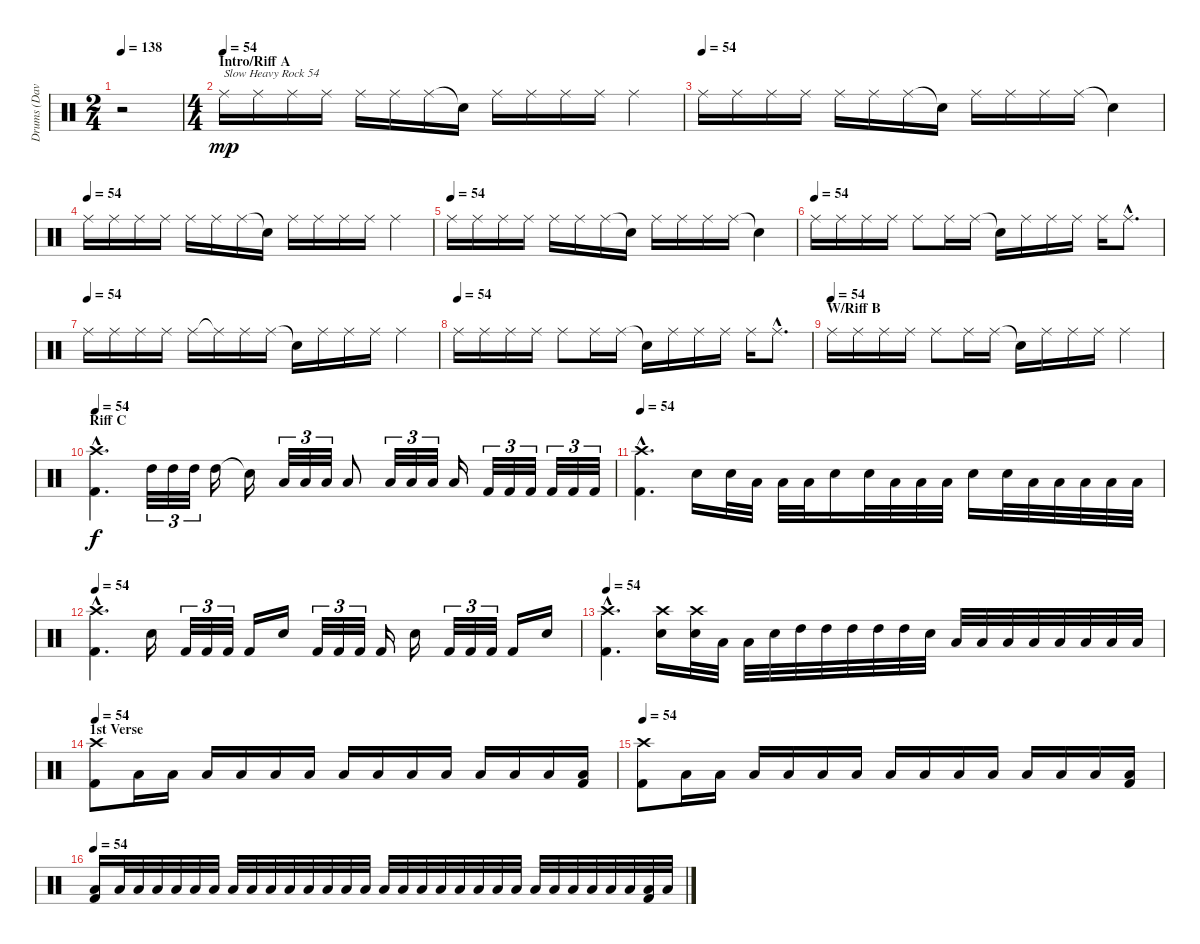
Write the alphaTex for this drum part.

\track ("Drums (Dave)" "Drums (Dav") {instrument percussion}
\staff {score}
\articulation defaults
\ts (2 4)
\tempo 138
\tempo 54
\tempo 138
\clef neutral
\ks c
r.2{dy mp} |
\ts (4 4)
\section ("" "Intro/Riff A")
\tempo (54)
"Ride (middle)".16{txt "Slow Heavy Rock 54" volume 9} "Ride (middle)".16 "Ride (middle)".16 "Ride (middle)".16 "Ride (middle)".16 "Ride (middle)".16 "Ride (middle)".16 "Snare (hit)"{t}.16 "Ride (middle)".16 "Ride (middle)".16 "Ride (middle)".16 "Ride (middle)".16 "Ride (middle)".4 |
\tempo (54)
"Ride (middle)".16{volume 9} "Ride (middle)".16 "Ride (middle)".16 "Ride (middle)".16 "Ride (middle)".16 "Ride (middle)".16 "Ride (middle)".16 "Snare (hit)"{t}.16 "Ride (middle)".16 "Ride (middle)".16 "Ride (middle)".16 "Ride (middle)".16 "Snare (hit)"{t}.4 |
\tempo (54)
"Ride (middle)".16{volume 9} "Ride (middle)".16 "Ride (middle)".16 "Ride (middle)".16 "Ride (middle)".16 "Ride (middle)".16 "Ride (middle)".16 "Snare (hit)"{t}.16 "Ride (middle)".16 "Ride (middle)".16 "Ride (middle)".16 "Ride (middle)".16 "Ride (middle)".4 |
\tempo (54)
"Ride (middle)".16{volume 9} "Ride (middle)".16 "Ride (middle)".16 "Ride (middle)".16 "Ride (middle)".16 "Ride (middle)".16 "Ride (middle)".16 "Snare (hit)"{t}.16 "Ride (middle)".16 "Ride (middle)".16 "Ride (middle)".16 "Ride (middle)".16 "Snare (hit)"{t}.4 |
\tempo (54)
"Ride (middle)".16{volume 9} "Ride (middle)".16 "Ride (middle)".16 "Ride (middle)".16 "Ride (middle)".8 "Ride (middle)".16 "Ride (middle)".16 "Snare (hit)"{t}.16 "Ride (middle)".16 "Ride (middle)".16 "Ride (middle)".16 "Ride (middle)".16 "Ride (middle)"{hac}.8{d} |
\tempo (54)
"Ride (middle)".16{volume 9} "Ride (middle)".16 "Ride (middle)".16 "Ride (middle)".16 "Ride (middle)".16 "Ride (middle)"{t}.16 "Ride (middle)".16 "Ride (middle)".16 "Snare (hit)"{t}.16 "Ride (middle)".16 "Ride (middle)".16 "Ride (middle)".16 "Ride (middle)".4 |
\tempo (54)
"Ride (middle)".16{volume 9} "Ride (middle)".16 "Ride (middle)".16 "Ride (middle)".16 "Ride (middle)".8 "Ride (middle)".16 "Ride (middle)".16 "Snare (hit)"{t}.16 "Ride (middle)".16 "Ride (middle)".16 "Ride (middle)".16 "Ride (middle)".16 "Ride (middle)"{hac}.8{d} |
\section ("" "W/Riff B")
\tempo (54)
"Ride (middle)".16{volume 9} "Ride (middle)".16 "Ride (middle)".16 "Ride (middle)".16 "Ride (middle)".8 "Ride (middle)".16 "Ride (middle)".16 "Snare (hit)"{t}.16 "Ride (middle)".16 "Ride (middle)".16 "Ride (middle)".16 "Ride (middle)".4 |
\section ("" "Riff C")
\tempo 54
("Crash high (hit)"{hac} "Kick (hit) 2"{hac}).4{d dy f volume 16} "High Tom (hit)".32{tu (3 2)} "High Tom (hit)".32{tu (3 2)} "High Tom (hit)".32{tu (3 2)} "High Tom (hit)".16 "Snare (hit)"{t}.16 "Low Tom (hit)".32{tu (3 2)} "Low Tom (hit)".32{tu (3 2)} "Low Tom (hit)".32{tu (3 2)} "Low Tom (hit)".8 "Low Floor Tom (hit)".32{tu (3 2)} "Low Floor Tom (hit)".32{tu (3 2)} "Low Floor Tom (hit)".32{tu (3 2)} "Low Floor Tom (hit)".16 "Kick (hit) 2".32{tu (3 2)} "Kick (hit) 2".32{tu (3 2)} "Kick (hit) 2".32{tu (3 2)} "Kick (hit) 2".32{tu (3 2)} "Kick (hit) 2".32{tu (3 2)} "Kick (hit) 2".32{tu (3 2)} |
\tempo 54
("Kick (hit) 2"{hac} "Crash high (hit)"{hac}).4{d} "Snare (hit) 2".16 "Snare (hit) 2".32 "Low Tom (hit)".32 "Low Tom (hit)".32 "Low Tom (hit)".32 "Snare (hit) 2".16 "Snare (hit) 2".32 "Low Floor Tom (hit)".32 "Low Floor Tom (hit)".32 "Low Floor Tom (hit)".32 "Snare (hit) 2".16 "Snare (hit) 2".32 "Low Floor Tom (hit)".32 "Low Floor Tom (hit)".32 "Low Floor Tom (hit)".32 "Low Tom (hit)".32 "Low Tom (hit)".32 |
\tempo 54
("Crash high (hit)"{hac} "Kick (hit) 2"{hac}).4{d} "Snare (hit) 2".16 "Kick (hit) 2".32{tu (3 2)} "Kick (hit) 2".32{tu (3 2)} "Kick (hit) 2".32{tu (3 2)} "Kick (hit) 2".16 "Snare (hit) 2".16 "Kick (hit) 2".32{tu (3 2)} "Kick (hit) 2".32{tu (3 2)} "Kick (hit) 2".32{tu (3 2)} "Kick (hit) 2".16 "Snare (hit) 2".16 "Kick (hit) 2".32{tu (3 2)} "Kick (hit) 2".32{tu (3 2)} "Kick (hit) 2".32{tu (3 2)} "Kick (hit) 2".16 "Snare (hit) 2".16 |
\tempo 54
("Kick (hit) 2"{hac} "Crash high (hit)"{hac}).4{d} ("Snare (hit) 2" "Crash high (hit)").16 ("Snare (hit) 2" "Crash high (hit)").32 "Low Tom (hit)".32 "Low Tom (hit)".32 "Snare (hit) 2".32 "High Tom (hit)".32 "High Tom (hit)".32 "High Tom (hit)".32 "High Tom (hit)".32 "High Tom (hit)".32 "Snare (hit) 2".32 "Low Tom (hit)".32 "Low Tom (hit)".32 "Low Tom (hit)".32 "Low Tom (hit)".32 "Low Tom (hit)".32 "Low Floor Tom (hit)".32 "Low Floor Tom (hit)".32 "Low Floor Tom (hit)".32 |
\section ("" "1st Verse")
\tempo 54
("Kick (hit) 2" "Crash high (hit)").8 "Low Floor Tom (hit)".16 "Low Floor Tom (hit)".16 "Low Floor Tom (hit)".16 "Low Floor Tom (hit)".16 "Low Floor Tom (hit)".16 "Low Floor Tom (hit)".16 "Low Floor Tom (hit)".16 "Low Floor Tom (hit)".16 "Low Floor Tom (hit)".16 "Low Floor Tom (hit)".16 "Low Floor Tom (hit)".16 "Low Floor Tom (hit)".16 "Low Floor Tom (hit)".16 ("Low Floor Tom (hit)" "Kick (hit) 2").16 |
\tempo 54
("Kick (hit) 2" "Crash high (hit)").8 "Low Floor Tom (hit)".16 "Low Floor Tom (hit)".16 "Low Floor Tom (hit)".16 "Low Floor Tom (hit)".16 "Low Floor Tom (hit)".16 "Low Floor Tom (hit)".16 "Low Floor Tom (hit)".16 "Low Floor Tom (hit)".16 "Low Floor Tom (hit)".16 "Low Floor Tom (hit)".16 "Low Floor Tom (hit)".16 "Low Floor Tom (hit)".16 "Low Floor Tom (hit)".16 ("Low Floor Tom (hit)" "Kick (hit) 2").16 |
\tempo 54
("Kick (hit) 2" "Low Floor Tom (hit)").16 "Low Floor Tom (hit)".32 "Low Floor Tom (hit)".32 "Low Floor Tom (hit)".32 "Low Floor Tom (hit)".32 "Low Floor Tom (hit)".32 "Low Floor Tom (hit)".32 "Low Floor Tom (hit)".32 "Low Floor Tom (hit)".32 "Low Floor Tom (hit)".32 "Low Floor Tom (hit)".32 "Low Floor Tom (hit)".32 "Low Floor Tom (hit)".32 "Low Floor Tom (hit)".32 "Low Floor Tom (hit)".32 "Low Floor Tom (hit)".32 "Low Floor Tom (hit)".32 "Low Floor Tom (hit)".32 "Low Floor Tom (hit)".32 "Low Floor Tom (hit)".32 "Low Floor Tom (hit)".32 "Low Floor Tom (hit)".32 "Low Floor Tom (hit)".32 "Low Floor Tom (hit)".32 "Low Floor Tom (hit)".32 "Low Floor Tom (hit)".32 "Low Floor Tom (hit)".32 "Low Floor Tom (hit)".32 "Low Floor Tom (hit)".32 ("Low Floor Tom (hit)" "Kick (hit) 2").32 "Low Floor Tom (hit)".32
